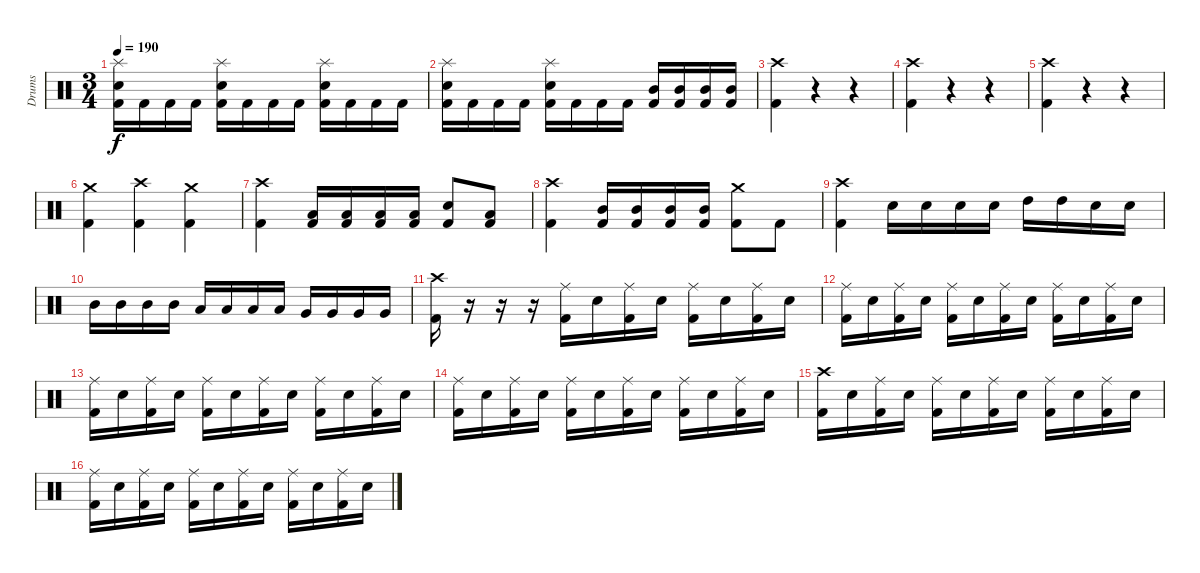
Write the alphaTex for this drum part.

\track ("Drums" "Drums") {instrument percussion}
\staff {score}
\articulation defaults
\ts (3 4)
\tempo 190
\clef neutral
\ks c
("Splash (hit)" "Snare (hit) 2" "Kick (hit) 2").16{dy f} "Kick (hit) 2".16 "Kick (hit) 2".16 "Kick (hit) 2".16 ("Splash (hit)" "Snare (hit) 2" "Kick (hit) 2").16 "Kick (hit) 2".16 "Kick (hit) 2".16 "Kick (hit) 2".16 ("Splash (hit)" "Snare (hit) 2" "Kick (hit) 2").16 "Kick (hit) 2".16 "Kick (hit) 2".16 "Kick (hit) 2".16 |
("Splash (hit)" "Snare (hit) 2" "Kick (hit) 2").16 "Kick (hit) 2".16 "Kick (hit) 2".16 "Kick (hit) 2".16 ("Splash (hit)" "Snare (hit) 2" "Kick (hit) 2").16 "Kick (hit) 2".16 "Kick (hit) 2".16 "Kick (hit) 2".16 ("Mid Tom (hit)" "Kick (hit) 2").16 ("Mid Tom (hit)" "Kick (hit) 2").16 ("Mid Tom (hit)" "Kick (hit) 2").16 ("Mid Tom (hit)" "Kick (hit) 2").16 |
("Crash high (hit)" "Kick (hit) 2").4 r.4 r.4 |
("Crash high (hit)" "Kick (hit) 2").4 r.4 r.4 |
("Crash high (hit)" "Kick (hit) 2").4 r.4 r.4 |
("Crash medium (hit)" "Kick (hit) 2").4 ("Crash high (hit)" "Kick (hit) 2").4 ("Crash medium (hit)" "Kick (hit) 2").4 |
("Crash high (hit)" "Kick (hit) 2").4 ("Low Tom (hit)" "Kick (hit) 2").16 ("Low Tom (hit)" "Kick (hit) 2").16 ("Low Tom (hit)" "Kick (hit) 2").16 ("Low Tom (hit)" "Kick (hit) 2").16 ("Snare (hit) 2" "Kick (hit) 2").8 ("Low Tom (hit)" "Kick (hit) 2").8 |
("Crash high (hit)" "Kick (hit) 2").4 ("Mid Tom (hit)" "Kick (hit) 2").16 ("Mid Tom (hit)" "Kick (hit) 2").16 ("Mid Tom (hit)" "Kick (hit) 2").16 ("Mid Tom (hit)" "Kick (hit) 2").16 ("Crash medium (hit)" "Kick (hit) 2").8 "Kick (hit) 2".8 |
("Crash high (hit)" "Kick (hit) 2").4 "Snare (hit) 2".16 "Snare (hit) 2".16 "Snare (hit) 2".16 "Snare (hit) 2".16 "High Tom (hit)".16 "High Tom (hit)".16 "Snare (hit) 2".16 "Snare (hit) 2".16 |
"Mid Tom (hit)".16 "Mid Tom (hit)".16 "Mid Tom (hit)".16 "Mid Tom (hit)".16 "Low Tom (hit)".16 "Low Tom (hit)".16 "Low Tom (hit)".16 "Low Tom (hit)".16 "Very Low Tom (hit)".16 "Very Low Tom (hit)".16 "Very Low Tom (hit)".16 "Very Low Tom (hit)".16 |
("Crash high (hit)" "Kick (hit) 2").16 r.16 r.16 r.16 ("Ride (middle)" "Kick (hit) 2").16 "Snare (hit) 2".16 ("Ride (middle)" "Kick (hit) 2").16 "Snare (hit) 2".16 ("Ride (middle)" "Kick (hit) 2").16 "Snare (hit) 2".16 ("Ride (middle)" "Kick (hit) 2").16 "Snare (hit) 2".16 |
("Ride (middle)" "Kick (hit) 2").16 "Snare (hit) 2".16 ("Ride (middle)" "Kick (hit) 2").16 "Snare (hit) 2".16 ("Ride (middle)" "Kick (hit) 2").16 "Snare (hit) 2".16 ("Ride (middle)" "Kick (hit) 2").16 "Snare (hit) 2".16 ("Ride (middle)" "Kick (hit) 2").16 "Snare (hit) 2".16 ("Ride (middle)" "Kick (hit) 2").16 "Snare (hit) 2".16 |
("Ride (middle)" "Kick (hit) 2").16 "Snare (hit) 2".16 ("Ride (middle)" "Kick (hit) 2").16 "Snare (hit) 2".16 ("Ride (middle)" "Kick (hit) 2").16 "Snare (hit) 2".16 ("Ride (middle)" "Kick (hit) 2").16 "Snare (hit) 2".16 ("Ride (middle)" "Kick (hit) 2").16 "Snare (hit) 2".16 ("Ride (middle)" "Kick (hit) 2").16 "Snare (hit) 2".16 |
("Ride (middle)" "Kick (hit) 2").16 "Snare (hit) 2".16 ("Ride (middle)" "Kick (hit) 2").16 "Snare (hit) 2".16 ("Ride (middle)" "Kick (hit) 2").16 "Snare (hit) 2".16 ("Ride (middle)" "Kick (hit) 2").16 "Snare (hit) 2".16 ("Ride (middle)" "Kick (hit) 2").16 "Snare (hit) 2".16 ("Ride (middle)" "Kick (hit) 2").16 "Snare (hit) 2".16 |
("Crash high (hit)" "Kick (hit) 2").16 "Snare (hit) 2".16 ("Ride (middle)" "Kick (hit) 2").16 "Snare (hit) 2".16 ("Ride (middle)" "Kick (hit) 2").16 "Snare (hit) 2".16 ("Ride (middle)" "Kick (hit) 2").16 "Snare (hit) 2".16 ("Ride (middle)" "Kick (hit) 2").16 "Snare (hit) 2".16 ("Ride (middle)" "Kick (hit) 2").16 "Snare (hit) 2".16 |
("Ride (middle)" "Kick (hit) 2").16 "Snare (hit) 2".16 ("Ride (middle)" "Kick (hit) 2").16 "Snare (hit) 2".16 ("Ride (middle)" "Kick (hit) 2").16 "Snare (hit) 2".16 ("Ride (middle)" "Kick (hit) 2").16 "Snare (hit) 2".16 ("Ride (middle)" "Kick (hit) 2").16 "Snare (hit) 2".16 ("Ride (middle)" "Kick (hit) 2").16 "Snare (hit) 2".16
